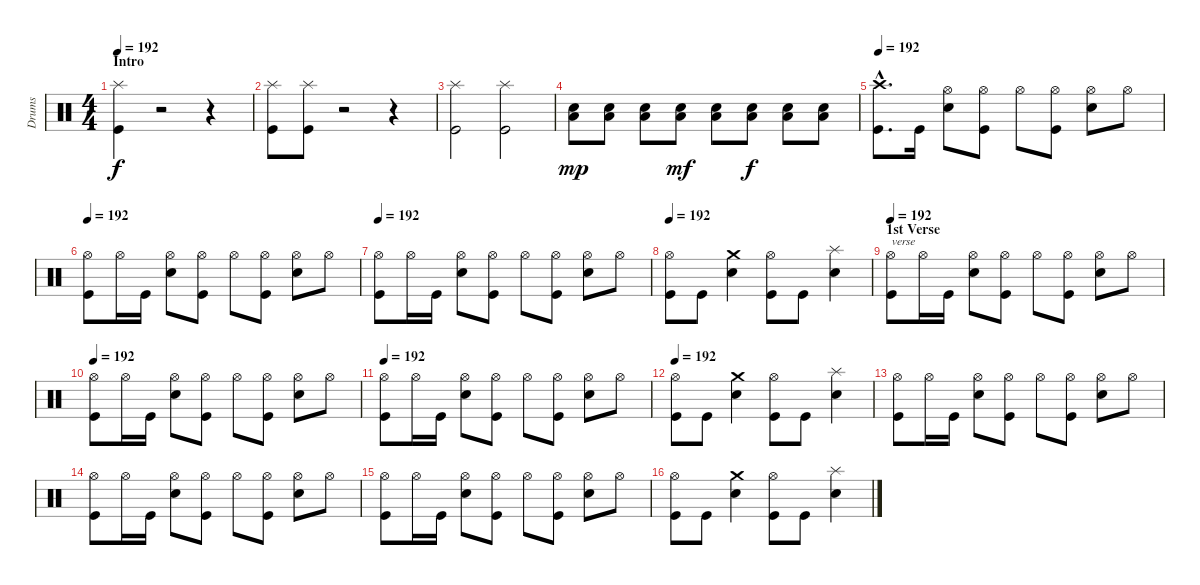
\track ("Drums" "Drums") {instrument percussion}
\staff {score}
\articulation defaults
\ts (4 4)
\section ("" "Intro")
\tempo 192
\clef neutral
\ks c
("Kick (hit)" "Splash (hit)").4{dy f} r.2 r.4 |
("Kick (hit)" "Splash (hit)").8 ("Kick (hit)" "Splash (hit)").8 r.2 r.4 |
("Kick (hit)" "Splash (hit)").2 ("Kick (hit)" "Splash (hit)").2 |
("Electric Snare (hit)" "Low Floor Tom (hit)").8{dy mp} ("Electric Snare (hit)" "Low Floor Tom (hit)").8 ("Electric Snare (hit)" "Low Floor Tom (hit)").8 ("Electric Snare (hit)" "Low Floor Tom (hit)").8{dy mf} ("Electric Snare (hit)" "Low Floor Tom (hit)").8 ("Electric Snare (hit)" "Low Floor Tom (hit)").8{dy f} ("Electric Snare (hit)" "Low Floor Tom (hit)").8 ("Electric Snare (hit)" "Low Floor Tom (hit)").8 |
\tempo 192
("Kick (hit)"{hac} "Crash high (hit)"{hac}).8{d} "Kick (hit)".16 ("Electric Snare (hit)" "Hi-Hat (open)").8 ("Kick (hit)" "Hi-Hat (open)").8 "Hi-Hat (open)".8 ("Kick (hit)" "Hi-Hat (open)").8 ("Electric Snare (hit)" "Hi-Hat (open)").8 "Hi-Hat (open)".8 |
\tempo 192
("Kick (hit)" "Hi-Hat (open)").8 "Hi-Hat (open)".16 "Kick (hit)".16 ("Electric Snare (hit)" "Hi-Hat (open)").8 ("Kick (hit)" "Hi-Hat (open)").8 "Hi-Hat (open)".8 ("Kick (hit)" "Hi-Hat (open)").8 ("Electric Snare (hit)" "Hi-Hat (open)").8 "Hi-Hat (open)".8 |
\tempo 192
("Kick (hit)" "Hi-Hat (open)").8 "Hi-Hat (open)".16 "Kick (hit)".16 ("Electric Snare (hit)" "Hi-Hat (open)").8 ("Kick (hit)" "Hi-Hat (open)").8 "Hi-Hat (open)".8 ("Kick (hit)" "Hi-Hat (open)").8 ("Electric Snare (hit)" "Hi-Hat (open)").8 "Hi-Hat (open)".8 |
\tempo 192
("Kick (hit)" "Hi-Hat (open)").8 "Kick (hit)".8 ("Electric Snare (hit)" "Crash medium (hit)").4 ("Kick (hit)" "Hi-Hat (open)").8 "Kick (hit)".8 ("Electric Snare (hit)" "Splash (hit)").4 |
\section ("" "1st Verse")
\tempo 192
("Kick (hit)" "Hi-Hat (open)").8{txt "verse"} "Hi-Hat (open)".16 "Kick (hit)".16 ("Electric Snare (hit)" "Hi-Hat (open)").8 ("Kick (hit)" "Hi-Hat (open)").8 "Hi-Hat (open)".8 ("Kick (hit)" "Hi-Hat (open)").8 ("Electric Snare (hit)" "Hi-Hat (open)").8 "Hi-Hat (open)".8 |
\tempo 192
("Kick (hit)" "Hi-Hat (open)").8 "Hi-Hat (open)".16 "Kick (hit)".16 ("Electric Snare (hit)" "Hi-Hat (open)").8 ("Kick (hit)" "Hi-Hat (open)").8 "Hi-Hat (open)".8 ("Kick (hit)" "Hi-Hat (open)").8 ("Electric Snare (hit)" "Hi-Hat (open)").8 "Hi-Hat (open)".8 |
\tempo 192
("Kick (hit)" "Hi-Hat (open)").8 "Hi-Hat (open)".16 "Kick (hit)".16 ("Electric Snare (hit)" "Hi-Hat (open)").8 ("Kick (hit)" "Hi-Hat (open)").8 "Hi-Hat (open)".8 ("Kick (hit)" "Hi-Hat (open)").8 ("Electric Snare (hit)" "Hi-Hat (open)").8 "Hi-Hat (open)".8 |
\tempo 192
("Kick (hit)" "Hi-Hat (open)").8 "Kick (hit)".8 ("Electric Snare (hit)" "Crash medium (hit)").4 ("Kick (hit)" "Hi-Hat (open)").8 "Kick (hit)".8 ("Electric Snare (hit)" "Splash (hit)").4 |
("Kick (hit)" "Hi-Hat (open)").8 "Hi-Hat (open)".16 "Kick (hit)".16 ("Electric Snare (hit)" "Hi-Hat (open)").8 ("Kick (hit)" "Hi-Hat (open)").8 "Hi-Hat (open)".8 ("Kick (hit)" "Hi-Hat (open)").8 ("Electric Snare (hit)" "Hi-Hat (open)").8 "Hi-Hat (open)".8 |
("Kick (hit)" "Hi-Hat (open)").8 "Hi-Hat (open)".16 "Kick (hit)".16 ("Electric Snare (hit)" "Hi-Hat (open)").8 ("Kick (hit)" "Hi-Hat (open)").8 "Hi-Hat (open)".8 ("Kick (hit)" "Hi-Hat (open)").8 ("Electric Snare (hit)" "Hi-Hat (open)").8 "Hi-Hat (open)".8 |
("Kick (hit)" "Hi-Hat (open)").8 "Hi-Hat (open)".16 "Kick (hit)".16 ("Electric Snare (hit)" "Hi-Hat (open)").8 ("Kick (hit)" "Hi-Hat (open)").8 "Hi-Hat (open)".8 ("Kick (hit)" "Hi-Hat (open)").8 ("Electric Snare (hit)" "Hi-Hat (open)").8 "Hi-Hat (open)".8 |
("Kick (hit)" "Hi-Hat (open)").8 "Kick (hit)".8 ("Electric Snare (hit)" "Crash medium (hit)").4 ("Kick (hit)" "Hi-Hat (open)").8 "Kick (hit)".8 ("Electric Snare (hit)" "Splash (hit)").4
